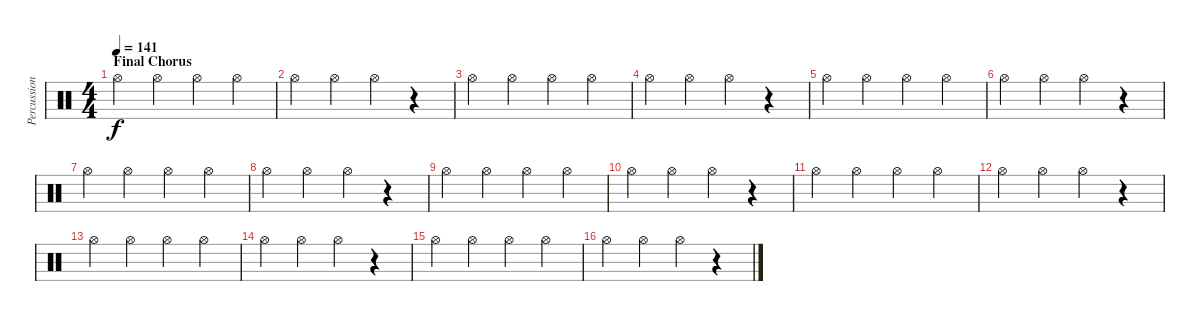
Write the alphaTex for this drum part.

\track ("Percussion" "Percussion") {instrument percussion}
\staff {score}
\articulation defaults
\ts (4 4)
\section ("" "Final Chorus")
\tempo 141
\clef neutral
\ks c "Hi-Hat (open)".4{dy f} "Hi-Hat (open)".4 "Hi-Hat (open)".4 "Hi-Hat (open)".4
|
"Hi-Hat (open)".4 "Hi-Hat (open)".4 "Hi-Hat (open)".4 r.4 |
"Hi-Hat (open)".4 "Hi-Hat (open)".4 "Hi-Hat (open)".4 "Hi-Hat (open)".4 |
"Hi-Hat (open)".4 "Hi-Hat (open)".4 "Hi-Hat (open)".4 r.4 |
"Hi-Hat (open)".4 "Hi-Hat (open)".4 "Hi-Hat (open)".4 "Hi-Hat (open)".4 |
"Hi-Hat (open)".4 "Hi-Hat (open)".4 "Hi-Hat (open)".4 r.4 |
"Hi-Hat (open)".4 "Hi-Hat (open)".4 "Hi-Hat (open)".4 "Hi-Hat (open)".4 |
"Hi-Hat (open)".4 "Hi-Hat (open)".4 "Hi-Hat (open)".4 r.4 |
"Hi-Hat (open)".4 "Hi-Hat (open)".4 "Hi-Hat (open)".4 "Hi-Hat (open)".4 |
"Hi-Hat (open)".4 "Hi-Hat (open)".4 "Hi-Hat (open)".4 r.4 |
"Hi-Hat (open)".4 "Hi-Hat (open)".4 "Hi-Hat (open)".4 "Hi-Hat (open)".4 |
"Hi-Hat (open)".4 "Hi-Hat (open)".4 "Hi-Hat (open)".4 r.4 |
"Hi-Hat (open)".4 "Hi-Hat (open)".4 "Hi-Hat (open)".4 "Hi-Hat (open)".4 |
"Hi-Hat (open)".4 "Hi-Hat (open)".4 "Hi-Hat (open)".4 r.4 |
"Hi-Hat (open)".4 "Hi-Hat (open)".4 "Hi-Hat (open)".4 "Hi-Hat (open)".4 |
"Hi-Hat (open)".4 "Hi-Hat (open)".4 "Hi-Hat (open)".4 r.4
